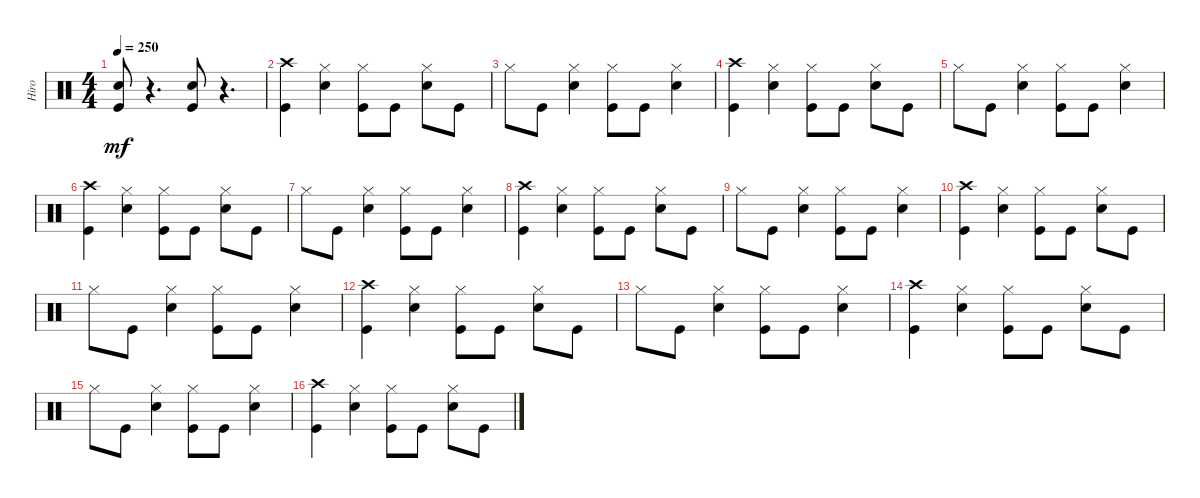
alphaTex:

\track ("Hiro" "Hiro") {instrument percussion}
\staff {score}
\articulation defaults
\ts (4 4)
\tempo 250
\clef neutral
\ks c
("Electric Snare (hit)" "Kick (hit)").8{dy mf} r.4{d} ("Electric Snare (hit)" "Kick (hit)").8 r.4{d} |
("Kick (hit)" "Crash high (hit)").4 ("Electric Snare (hit)" "Hi-Hat (closed)").4 ("Kick (hit)" "Hi-Hat (closed)").8 "Kick (hit)".8 ("Electric Snare (hit)" "Hi-Hat (closed)").8 "Kick (hit)".8 |
"Hi-Hat (closed)".8 "Kick (hit)".8 ("Electric Snare (hit)" "Hi-Hat (closed)").4 ("Kick (hit)" "Hi-Hat (closed)").8 "Kick (hit)".8 ("Electric Snare (hit)" "Hi-Hat (closed)").4 |
("Crash high (hit)" "Kick (hit)").4 ("Hi-Hat (closed)" "Electric Snare (hit)").4 ("Hi-Hat (closed)" "Kick (hit)").8 "Kick (hit)".8 ("Hi-Hat (closed)" "Electric Snare (hit)").8 "Kick (hit)".8 |
"Hi-Hat (closed)".8 "Kick (hit)".8 ("Hi-Hat (closed)" "Electric Snare (hit)").4 ("Hi-Hat (closed)" "Kick (hit)").8 "Kick (hit)".8 ("Hi-Hat (closed)" "Electric Snare (hit)").4 |
("Crash high (hit)" "Kick (hit)").4 ("Hi-Hat (closed)" "Electric Snare (hit)").4 ("Hi-Hat (closed)" "Kick (hit)").8 "Kick (hit)".8 ("Hi-Hat (closed)" "Electric Snare (hit)").8 "Kick (hit)".8 |
"Hi-Hat (closed)".8 "Kick (hit)".8 ("Hi-Hat (closed)" "Electric Snare (hit)").4 ("Hi-Hat (closed)" "Kick (hit)").8 "Kick (hit)".8 ("Hi-Hat (closed)" "Electric Snare (hit)").4 |
("Kick (hit)" "Crash high (hit)").4 ("Electric Snare (hit)" "Hi-Hat (closed)").4 ("Kick (hit)" "Hi-Hat (closed)").8 "Kick (hit)".8 ("Electric Snare (hit)" "Hi-Hat (closed)").8 "Kick (hit)".8 |
"Hi-Hat (closed)".8 "Kick (hit)".8 ("Electric Snare (hit)" "Hi-Hat (closed)").4 ("Kick (hit)" "Hi-Hat (closed)").8 "Kick (hit)".8 ("Electric Snare (hit)" "Hi-Hat (closed)").4 |
("Crash high (hit)" "Kick (hit)").4 ("Hi-Hat (closed)" "Electric Snare (hit)").4 ("Hi-Hat (closed)" "Kick (hit)").8 "Kick (hit)".8 ("Hi-Hat (closed)" "Electric Snare (hit)").8 "Kick (hit)".8 |
"Hi-Hat (closed)".8 "Kick (hit)".8 ("Hi-Hat (closed)" "Electric Snare (hit)").4 ("Hi-Hat (closed)" "Kick (hit)").8 "Kick (hit)".8 ("Hi-Hat (closed)" "Electric Snare (hit)").4 |
("Kick (hit)" "Crash high (hit)").4 ("Electric Snare (hit)" "Hi-Hat (closed)").4 ("Kick (hit)" "Hi-Hat (closed)").8 "Kick (hit)".8 ("Electric Snare (hit)" "Hi-Hat (closed)").8 "Kick (hit)".8 |
"Hi-Hat (closed)".8 "Kick (hit)".8 ("Electric Snare (hit)" "Hi-Hat (closed)").4 ("Kick (hit)" "Hi-Hat (closed)").8 "Kick (hit)".8 ("Electric Snare (hit)" "Hi-Hat (closed)").4 |
("Kick (hit)" "Crash high (hit)").4 ("Electric Snare (hit)" "Hi-Hat (closed)").4 ("Kick (hit)" "Hi-Hat (closed)").8 "Kick (hit)".8 ("Electric Snare (hit)" "Hi-Hat (closed)").8 "Kick (hit)".8 |
"Hi-Hat (closed)".8 "Kick (hit)".8 ("Electric Snare (hit)" "Hi-Hat (closed)").4 ("Kick (hit)" "Hi-Hat (closed)").8 "Kick (hit)".8 ("Electric Snare (hit)" "Hi-Hat (closed)").4 |
("Kick (hit)" "Crash high (hit)").4 ("Hi-Hat (closed)" "Electric Snare (hit)").4 ("Hi-Hat (closed)" "Kick (hit)").8 "Kick (hit)".8 ("Hi-Hat (closed)" "Electric Snare (hit)").8 "Kick (hit)".8
